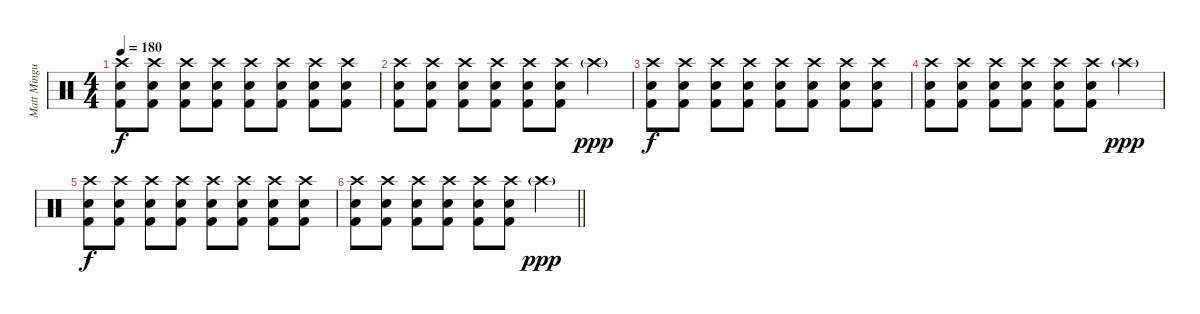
\track ("Matt Mingus (Drums)" "Matt Mingu") {instrument percussion}
\staff {score}
\articulation defaults
\ts (4 4)
\tempo 180
\clef neutral
\ks c
("Crash high (hit)" "Electric Snare (hit)" "Kick (hit) 2").8{dy f} ("Crash high (hit)" "Electric Snare (hit)" "Kick (hit) 2").8 ("Crash high (hit)" "Electric Snare (hit)" "Kick (hit) 2").8 ("Crash high (hit)" "Electric Snare (hit)" "Kick (hit) 2").8 ("Crash high (hit)" "Electric Snare (hit)" "Kick (hit) 2").8 ("Crash high (hit)" "Electric Snare (hit)" "Kick (hit) 2").8 ("Crash high (hit)" "Electric Snare (hit)" "Kick (hit) 2").8 ("Crash high (hit)" "Electric Snare (hit)" "Kick (hit) 2").8 |
("Crash high (hit)" "Electric Snare (hit)" "Kick (hit) 2").8 ("Crash high (hit)" "Electric Snare (hit)" "Kick (hit) 2").8 ("Crash high (hit)" "Electric Snare (hit)" "Kick (hit) 2").8 ("Crash high (hit)" "Electric Snare (hit)" "Kick (hit) 2").8 ("Crash high (hit)" "Electric Snare (hit)" "Kick (hit) 2").8 ("Crash high (hit)" "Electric Snare (hit)" "Kick (hit) 2").8 "Crash high (hit)"{g}.4{dy ppp} |
("Crash high (hit)" "Electric Snare (hit)" "Kick (hit) 2").8{dy f} ("Crash high (hit)" "Electric Snare (hit)" "Kick (hit) 2").8 ("Crash high (hit)" "Electric Snare (hit)" "Kick (hit) 2").8 ("Crash high (hit)" "Electric Snare (hit)" "Kick (hit) 2").8 ("Crash high (hit)" "Electric Snare (hit)" "Kick (hit) 2").8 ("Crash high (hit)" "Electric Snare (hit)" "Kick (hit) 2").8 ("Crash high (hit)" "Electric Snare (hit)" "Kick (hit) 2").8 ("Crash high (hit)" "Electric Snare (hit)" "Kick (hit) 2").8 |
("Crash high (hit)" "Electric Snare (hit)" "Kick (hit) 2").8 ("Crash high (hit)" "Electric Snare (hit)" "Kick (hit) 2").8 ("Crash high (hit)" "Electric Snare (hit)" "Kick (hit) 2").8 ("Crash high (hit)" "Electric Snare (hit)" "Kick (hit) 2").8 ("Crash high (hit)" "Electric Snare (hit)" "Kick (hit) 2").8 ("Crash high (hit)" "Electric Snare (hit)" "Kick (hit) 2").8 "Crash high (hit)"{g}.4{dy ppp} |
("Crash high (hit)" "Electric Snare (hit)" "Kick (hit) 2").8{dy f} ("Crash high (hit)" "Electric Snare (hit)" "Kick (hit) 2").8 ("Crash high (hit)" "Electric Snare (hit)" "Kick (hit) 2").8 ("Crash high (hit)" "Electric Snare (hit)" "Kick (hit) 2").8 ("Crash high (hit)" "Electric Snare (hit)" "Kick (hit) 2").8 ("Crash high (hit)" "Electric Snare (hit)" "Kick (hit) 2").8 ("Crash high (hit)" "Electric Snare (hit)" "Kick (hit) 2").8 ("Crash high (hit)" "Electric Snare (hit)" "Kick (hit) 2").8 |
\barLineRight lightlight
("Crash high (hit)" "Electric Snare (hit)" "Kick (hit) 2").8 ("Crash high (hit)" "Electric Snare (hit)" "Kick (hit) 2").8 ("Crash high (hit)" "Electric Snare (hit)" "Kick (hit) 2").8 ("Crash high (hit)" "Electric Snare (hit)" "Kick (hit) 2").8 ("Crash high (hit)" "Electric Snare (hit)" "Kick (hit) 2").8 ("Crash high (hit)" "Electric Snare (hit)" "Kick (hit) 2").8 "Crash high (hit)"{g}.4{dy ppp}
